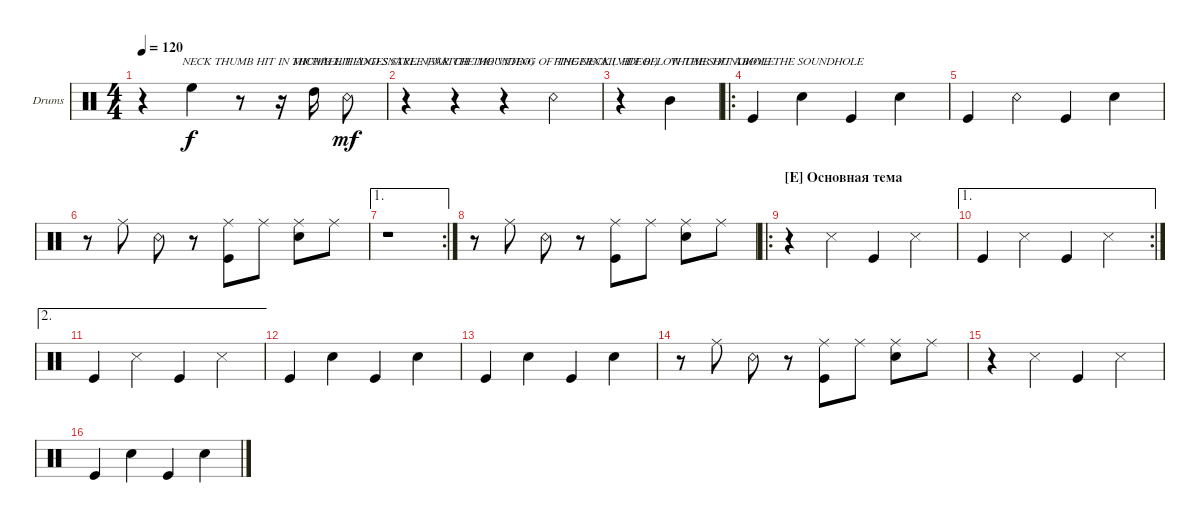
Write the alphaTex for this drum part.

\defaultSystemsLayout 4
\bracketExtendMode groupsimilarinstruments
\firstSystemTrackNameOrientation horizontal
\otherSystemsTrackNameOrientation horizontal
\track ("Drumkit" "Drums") {instrument percussion}
\staff {score}
\articulation defaults
\ts (4 4)
\tempo 120
\clef neutral
\ks c
r.4{txt "             NECK THUMB HIT IN MICHAEL HEDGES STYLE (WATCH THE VIDEO)" dy mf} "High Floor Tom (hit)".4{dy f} r.8{txt "                 THUMB HIT AND SNARE NEAR THE MOUNTING OF THE NECK (VIDEO!)"} r.16 "High Tom (hit)".16 "Snare (rim shot)".8{dy mf} |
r.4 r.4 r.4 "Snare (rim shot)".4{txt "FINGERNAIL HIT BELOW THE SOUNDHOLE"} |
r.4 "Mid Tom (hit)".4{txt "THUMB HIT ABOVE THE SOUNDHOLE"} |
\ro "Kick (hit)".4 "Snare (hit) 2".4 "Kick (hit)".4 "Snare (hit) 2".4
|
"Kick (hit)".4 "Snare (rim shot)".4 "Kick (hit)".4 "Snare (hit) 2".4 |
r.8 "Ride (middle)".8 "Snare (rim shot)".8 r.8 ("Kick (hit)" "Ride (middle)").8 "Ride (middle)".8 ("Snare (hit) 2" "Ride (middle)").8 "Ride (middle)".8 |
\ae 1
\rc 2
r.1 |
r.8 "Ride (middle)".8 "Snare (rim shot)".8 r.8 ("Kick (hit)" "Ride (middle)").8 "Ride (middle)".8 ("Snare (hit) 2" "Ride (middle)").8 "Ride (middle)".8 |
\ro
\section ("E" "Основная тема")
r.4 "Snare (side stick) 3".4 "Kick (hit)".4 "Snare (side stick) 3".4 |
\ae 1
\rc 2 "Kick (hit)".4 "Snare (side stick) 3".4 "Kick (hit)".4 "Snare (side stick) 3".4
|
\ae 2 "Kick (hit)".4 "Snare (side stick) 3".4 "Kick (hit)".4 "Snare (side stick) 3".4
|
"Kick (hit)".4 "Snare (hit) 2".4 "Kick (hit)".4 "Snare (hit) 2".4 |
"Kick (hit)".4 "Snare (hit) 2".4 "Kick (hit)".4 "Snare (hit) 2".4 |
r.8 "Ride (middle)".8 "Snare (rim shot)".8 r.8 ("Kick (hit)" "Ride (middle)").8 "Ride (middle)".8 ("Snare (hit) 2" "Ride (middle)").8 "Ride (middle)".8 |
r.4 "Snare (side stick) 3".4 "Kick (hit)".4 "Snare (side stick) 3".4 |
"Kick (hit)".4 "Snare (hit) 2".4 "Kick (hit)".4 "Snare (hit) 2".4
